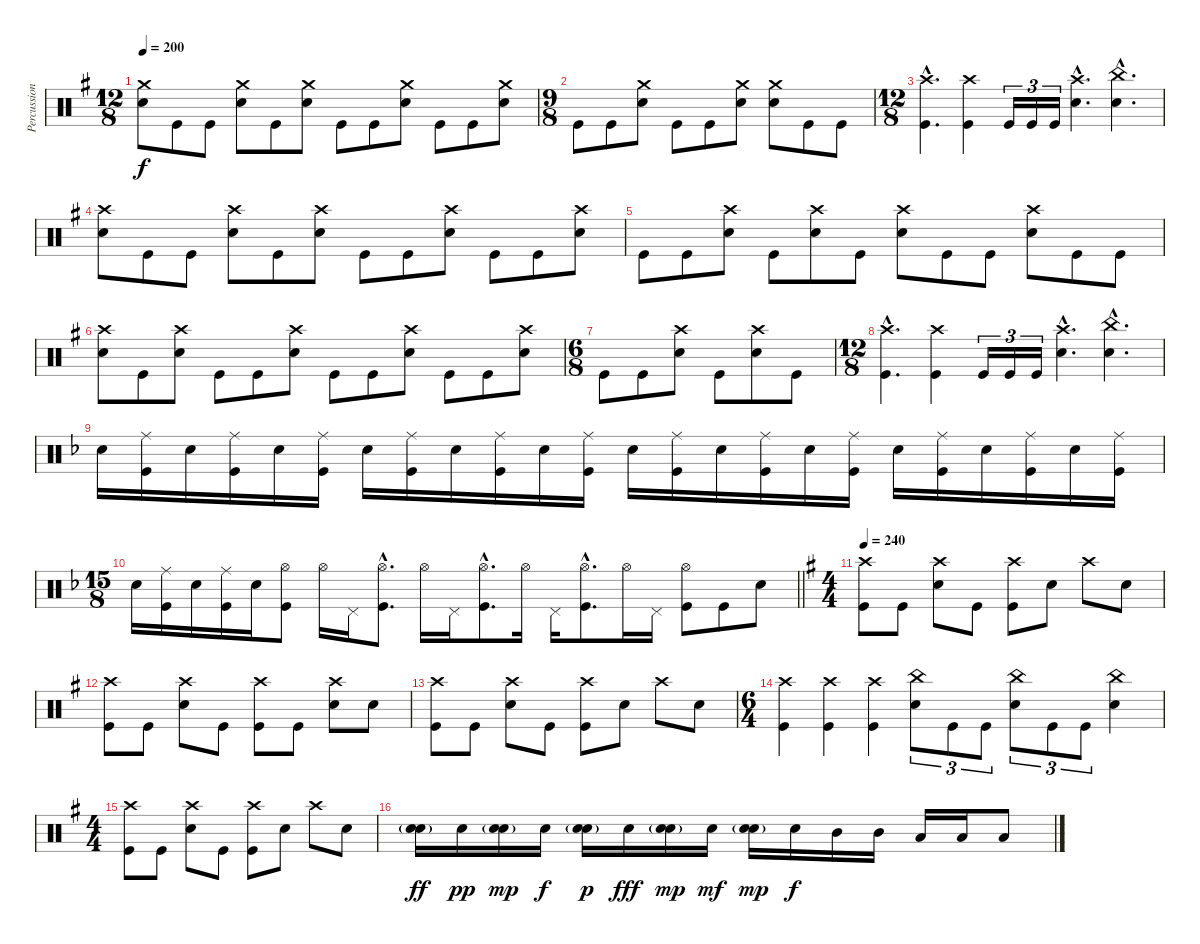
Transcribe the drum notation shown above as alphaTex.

\track ("Percussion" "Percussion") {instrument percussion}
\staff {score}
\articulation defaults
\ts (12 8)
\tempo 200
\clef neutral
\ks g
("Crash medium (hit)" "Electric Snare (hit)").8{dy f} "Kick (hit)".8 "Kick (hit)".8 ("Crash medium (hit)" "Electric Snare (hit)").8 "Kick (hit)".8 ("Crash medium (hit)" "Electric Snare (hit)").8 "Kick (hit)".8 "Kick (hit)".8 ("Crash medium (hit)" "Electric Snare (hit)").8 "Kick (hit)".8 "Kick (hit)".8 ("Crash medium (hit)" "Electric Snare (hit)").8 |
\ts (9 8)
"Kick (hit)".8 "Kick (hit)".8 ("Crash medium (hit)" "Electric Snare (hit)").8 "Kick (hit)".8 "Kick (hit)".8 ("Crash medium (hit)" "Electric Snare (hit)").8 ("Crash medium (hit)" "Electric Snare (hit)").8 "Kick (hit)".8 "Kick (hit)".8 |
\ts (12 8)
("Crash high (hit)"{hac} "Kick (hit)"{hac}).4{d} ("Crash high (hit)" "Kick (hit)").4 "Kick (hit)".16{tu (3 2)} "Kick (hit)".16{tu (3 2)} "Kick (hit)".16{tu (3 2)} ("Crash high (hit)"{hac} "Electric Snare (hit)"{hac}).4{d} ("China (hit)"{hac} "Electric Snare (hit)"{hac}).4{d} |
("Crash high (hit)" "Electric Snare (hit)").8 "Kick (hit)".8 "Kick (hit)".8 ("Crash high (hit)" "Electric Snare (hit)").8 "Kick (hit)".8 ("Crash high (hit)" "Electric Snare (hit)").8 "Kick (hit)".8 "Kick (hit)".8 ("Crash high (hit)" "Electric Snare (hit)").8 "Kick (hit)".8 "Kick (hit)".8 ("Crash high (hit)" "Electric Snare (hit)").8 |
"Kick (hit)".8 "Kick (hit)".8 ("Crash high (hit)" "Electric Snare (hit)").8 "Kick (hit)".8 ("Crash high (hit)" "Electric Snare (hit)").8 "Kick (hit)".8 ("Crash high (hit)" "Electric Snare (hit)").8 "Kick (hit)".8 "Kick (hit)".8 ("Crash high (hit)" "Electric Snare (hit)").8 "Kick (hit)".8 "Kick (hit)".8 |
("Crash high (hit)" "Electric Snare (hit)").8 "Kick (hit)".8 ("Crash high (hit)" "Electric Snare (hit)").8 "Kick (hit)".8 "Kick (hit)".8 ("Crash high (hit)" "Electric Snare (hit)").8 "Kick (hit)".8 "Kick (hit)".8 ("Crash high (hit)" "Electric Snare (hit)").8 "Kick (hit)".8 "Kick (hit)".8 ("Crash high (hit)" "Electric Snare (hit)").8 |
\ts (6 8)
"Kick (hit)".8 "Kick (hit)".8 ("Crash high (hit)" "Electric Snare (hit)").8 "Kick (hit)".8 ("Crash high (hit)" "Electric Snare (hit)").8 "Kick (hit)".8 |
\ts (12 8)
("Crash high (hit)"{hac} "Kick (hit)"{hac}).4{d} ("Crash high (hit)" "Kick (hit)").4 "Kick (hit)".16{tu (3 2)} "Kick (hit)".16{tu (3 2)} "Kick (hit)".16{tu (3 2)} ("Crash high (hit)"{hac} "Electric Snare (hit)"{hac}).4{d} ("China (hit)"{hac} "Electric Snare (hit)"{hac}).4{d} |
\ks f "Electric Snare (hit)".16
("Ride (middle)" "Kick (hit)").16 "Electric Snare (hit)".16 ("Ride (middle)" "Kick (hit)").16 "Electric Snare (hit)".16 ("Ride (middle)" "Kick (hit)").16 "Electric Snare (hit)".16 ("Ride (middle)" "Kick (hit)").16 "Electric Snare (hit)".16 ("Ride (middle)" "Kick (hit)").16 "Electric Snare (hit)".16 ("Ride (middle)" "Kick (hit)").16 "Electric Snare (hit)".16 ("Ride (middle)" "Kick (hit)").16 "Electric Snare (hit)".16 ("Ride (middle)" "Kick (hit)").16 "Electric Snare (hit)".16 ("Ride (middle)" "Kick (hit)").16 "Electric Snare (hit)".16 ("Ride (middle)" "Kick (hit)").16 "Electric Snare (hit)".16 ("Ride (middle)" "Kick (hit)").16 "Electric Snare (hit)".16 ("Ride (middle)" "Kick (hit)").16 |
\ts (15 8)
\barLineRight lightlight "Electric Snare (hit)".16
("Ride (middle)" "Kick (hit)").16 "Electric Snare (hit)".16 ("Ride (middle)" "Kick (hit)").16 "Electric Snare (hit)".16 ("Hi-Hat (open)" "Kick (hit)").8 "Hi-Hat (open)".16 "Pedal Hi-Hat (hit)".16 ("Hi-Hat (open)"{hac} "Kick (hit)"{hac}).8{d} "Hi-Hat (open)".16{volume 10} "Pedal Hi-Hat (hit)".16 ("Hi-Hat (open)"{hac} "Kick (hit)"{hac}).8{d} "Hi-Hat (open)".16{volume 6} "Pedal Hi-Hat (hit)".16 ("Hi-Hat (open)"{hac} "Kick (hit)"{hac}).8{d} "Hi-Hat (open)".16{volume 3} "Pedal Hi-Hat (hit)".16 ("Hi-Hat (open)" "Kick (hit)").8 "Kick (hit)".8{volume 13} "Electric Snare (hit)".8 |
\ts (4 4)
\tempo 255
\tempo 240
\ks g
("Crash high (hit)" "Kick (hit)").8 "Kick (hit)".8 ("Crash high (hit)" "Electric Snare (hit)").8 "Kick (hit)".8 ("Crash high (hit)" "Kick (hit)").8 "Electric Snare (hit)".8 "Crash high (hit)".8 "Electric Snare (hit)".8 |
("Crash high (hit)" "Kick (hit)").8 "Kick (hit)".8 ("Crash high (hit)" "Electric Snare (hit)").8 "Kick (hit)".8 ("Crash high (hit)" "Kick (hit)").8 "Kick (hit)".8 ("Crash high (hit)" "Electric Snare (hit)").8 "Electric Snare (hit)".8 |
("Crash high (hit)" "Kick (hit)").8 "Kick (hit)".8 ("Crash high (hit)" "Electric Snare (hit)").8 "Kick (hit)".8 ("Crash high (hit)" "Kick (hit)").8 "Electric Snare (hit)".8 "Crash high (hit)".8 "Electric Snare (hit)".8 |
\ts (6 4)
("Crash high (hit)" "Kick (hit)").4 ("Crash high (hit)" "Kick (hit)").4 ("Crash high (hit)" "Kick (hit)").4 ("China (hit)" "Electric Snare (hit)").8{tu (3 2)} "Kick (hit)".8{tu (3 2)} "Kick (hit)".8{tu (3 2)} ("China (hit)" "Electric Snare (hit)").8{tu (3 2)} "Kick (hit)".8{tu (3 2)} "Kick (hit)".8{tu (3 2)} ("China (hit)" "Electric Snare (hit)").4 |
\ts (4 4)
("Crash high (hit)" "Kick (hit)").8 "Kick (hit)".8 ("Crash high (hit)" "Electric Snare (hit)").8 "Kick (hit)".8 ("Crash high (hit)" "Kick (hit)").8 "Electric Snare (hit)".8 "Crash high (hit)".8 "Electric Snare (hit)".8 |
("Snare (hit) 2"{g} "Electric Snare (hit)").16{dy ff} "Electric Snare (hit)".16{dy pp} ("Snare (hit) 2"{g} "Electric Snare (hit)").16{dy mp} "Electric Snare (hit)".16{dy f} ("Snare (hit) 2"{g} "Electric Snare (hit)").16{dy p} "Electric Snare (hit)".16{dy fff} ("Snare (hit) 2"{g} "Electric Snare (hit)").16{dy mp} "Electric Snare (hit)".16{dy mf} ("Snare (hit) 2"{g} "Electric Snare (hit)").16{dy mp} "Electric Snare (hit)".16{dy f} "Mid Tom (hit)".16 "Mid Tom (hit)".16 "Low Tom (hit)".16 "Low Tom (hit)".16 "Low Tom (hit)".8
